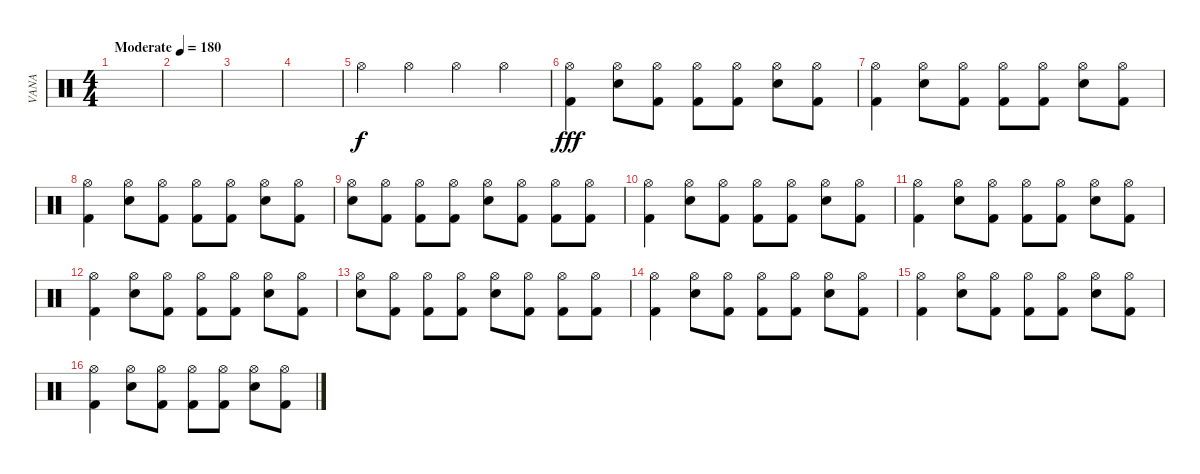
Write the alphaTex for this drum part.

\track ("VANA" "VANA") {instrument percussion}
\staff {score}
\articulation defaults
\ts (4 4)
\tempo (180 "Moderate")
\clef neutral
\ks c
|
|
|
|
"Hi-Hat (open)".4 "Hi-Hat (open)".4 "Hi-Hat (open)".4 "Hi-Hat (open)".4 |
("Kick (hit) 2" "Hi-Hat (open)").4{dy fff} ("Hi-Hat (open)" "Electric Snare (hit)").8 ("Hi-Hat (open)" "Kick (hit) 2").8 ("Hi-Hat (open)" "Kick (hit) 2").8 ("Hi-Hat (open)" "Kick (hit) 2").8 ("Hi-Hat (open)" "Electric Snare (hit)").8 ("Hi-Hat (open)" "Kick (hit) 2").8 |
("Kick (hit) 2" "Hi-Hat (open)").4 ("Hi-Hat (open)" "Electric Snare (hit)").8 ("Hi-Hat (open)" "Kick (hit) 2").8 ("Hi-Hat (open)" "Kick (hit) 2").8 ("Hi-Hat (open)" "Kick (hit) 2").8 ("Hi-Hat (open)" "Electric Snare (hit)").8 ("Hi-Hat (open)" "Kick (hit) 2").8 |
("Kick (hit) 2" "Hi-Hat (open)").4 ("Hi-Hat (open)" "Electric Snare (hit)").8 ("Hi-Hat (open)" "Kick (hit) 2").8 ("Hi-Hat (open)" "Kick (hit) 2").8 ("Hi-Hat (open)" "Kick (hit) 2").8 ("Hi-Hat (open)" "Electric Snare (hit)").8 ("Hi-Hat (open)" "Kick (hit) 2").8 |
("Hi-Hat (open)" "Electric Snare (hit)").8 ("Hi-Hat (open)" "Kick (hit) 2").8 ("Hi-Hat (open)" "Kick (hit) 2").8 ("Hi-Hat (open)" "Kick (hit) 2").8 ("Hi-Hat (open)" "Electric Snare (hit)").8 ("Hi-Hat (open)" "Kick (hit) 2").8 ("Hi-Hat (open)" "Kick (hit) 2").8 ("Hi-Hat (open)" "Kick (hit) 2").8 |
("Kick (hit) 2" "Hi-Hat (open)").4 ("Hi-Hat (open)" "Electric Snare (hit)").8 ("Hi-Hat (open)" "Kick (hit) 2").8 ("Hi-Hat (open)" "Kick (hit) 2").8 ("Hi-Hat (open)" "Kick (hit) 2").8 ("Hi-Hat (open)" "Electric Snare (hit)").8 ("Hi-Hat (open)" "Kick (hit) 2").8 |
("Kick (hit) 2" "Hi-Hat (open)").4 ("Hi-Hat (open)" "Electric Snare (hit)").8 ("Hi-Hat (open)" "Kick (hit) 2").8 ("Hi-Hat (open)" "Kick (hit) 2").8 ("Hi-Hat (open)" "Kick (hit) 2").8 ("Hi-Hat (open)" "Electric Snare (hit)").8 ("Hi-Hat (open)" "Kick (hit) 2").8 |
("Kick (hit) 2" "Hi-Hat (open)").4 ("Hi-Hat (open)" "Electric Snare (hit)").8 ("Hi-Hat (open)" "Kick (hit) 2").8 ("Hi-Hat (open)" "Kick (hit) 2").8 ("Hi-Hat (open)" "Kick (hit) 2").8 ("Hi-Hat (open)" "Electric Snare (hit)").8 ("Hi-Hat (open)" "Kick (hit) 2").8 |
("Hi-Hat (open)" "Electric Snare (hit)").8 ("Hi-Hat (open)" "Kick (hit) 2").8 ("Hi-Hat (open)" "Kick (hit) 2").8 ("Hi-Hat (open)" "Kick (hit) 2").8 ("Hi-Hat (open)" "Electric Snare (hit)").8 ("Hi-Hat (open)" "Kick (hit) 2").8 ("Hi-Hat (open)" "Kick (hit) 2").8 ("Hi-Hat (open)" "Kick (hit) 2").8 |
("Kick (hit) 2" "Hi-Hat (open)").4 ("Hi-Hat (open)" "Electric Snare (hit)").8 ("Hi-Hat (open)" "Kick (hit) 2").8 ("Hi-Hat (open)" "Kick (hit) 2").8 ("Hi-Hat (open)" "Kick (hit) 2").8 ("Hi-Hat (open)" "Electric Snare (hit)").8 ("Hi-Hat (open)" "Kick (hit) 2").8 |
("Kick (hit) 2" "Hi-Hat (open)").4 ("Hi-Hat (open)" "Electric Snare (hit)").8 ("Hi-Hat (open)" "Kick (hit) 2").8 ("Hi-Hat (open)" "Kick (hit) 2").8 ("Hi-Hat (open)" "Kick (hit) 2").8 ("Hi-Hat (open)" "Electric Snare (hit)").8 ("Hi-Hat (open)" "Kick (hit) 2").8 |
("Kick (hit) 2" "Hi-Hat (open)").4 ("Hi-Hat (open)" "Electric Snare (hit)").8 ("Hi-Hat (open)" "Kick (hit) 2").8 ("Hi-Hat (open)" "Kick (hit) 2").8 ("Hi-Hat (open)" "Kick (hit) 2").8 ("Hi-Hat (open)" "Electric Snare (hit)").8 ("Hi-Hat (open)" "Kick (hit) 2").8
